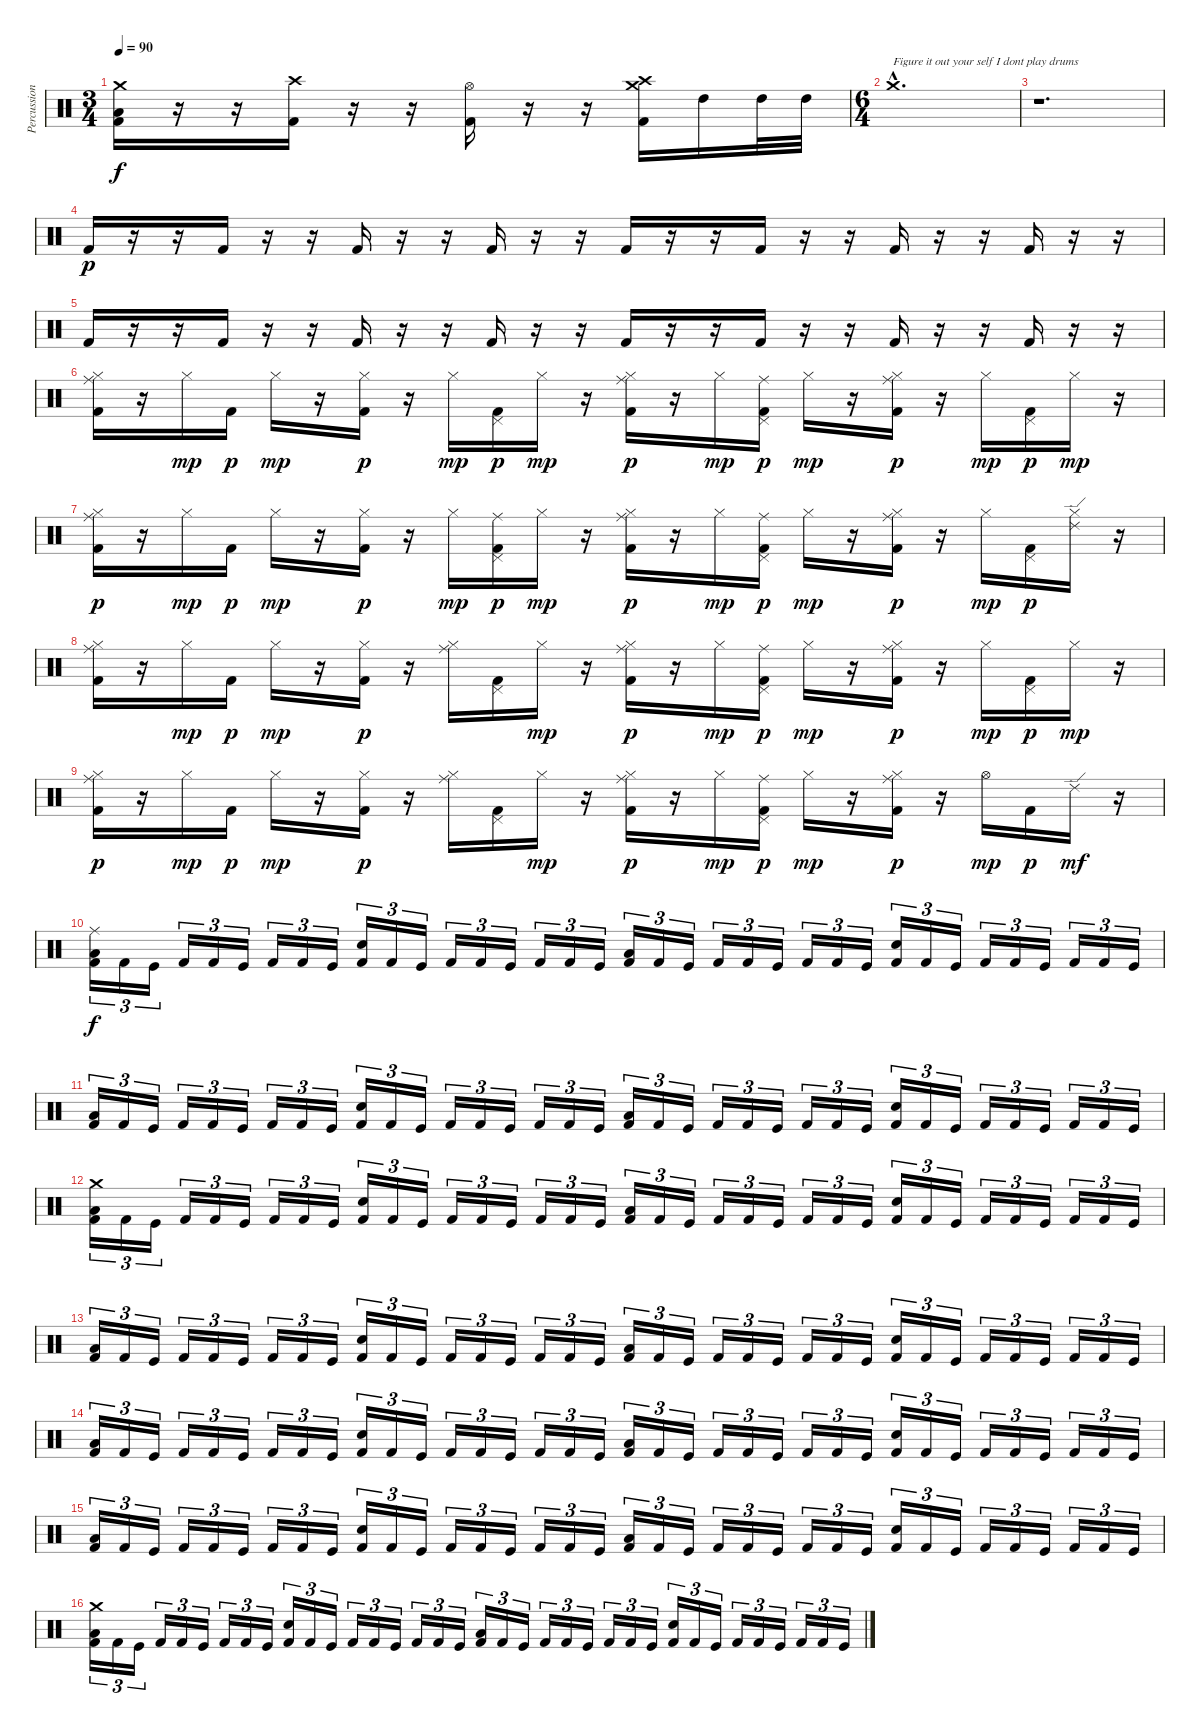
\track ("Percussion" "Percussion") {instrument percussion}
\staff {score}
\articulation defaults
\ts (3 4)
\tempo 90
\clef neutral
\ks c
("Crash medium (hit)" "Low Floor Tom (hit)" "Kick (hit) 2").16{dy f} r.16 r.16 ("Crash high (hit)" "Kick (hit) 2").16 r.16 r.16 ("Hi-Hat (open)" "Kick (hit) 2").16 r.16 r.16 ("Crash medium (hit)" "Crash high (hit)" "Kick (hit) 2").16 "High Tom (hit)".16 "High Tom (hit)".32 "High Tom (hit)".32 |
\ts (6 4)
"Crash medium (hit)"{hac}.1{d txt "Figure it out your self I dont play drums"} |
r.1{d} |
"Kick (hit) 2".16{dy p} r.16 r.16 "Kick (hit) 2".16 r.16 r.16 "Kick (hit) 2".16 r.16 r.16 "Kick (hit) 2".16 r.16 r.16 "Kick (hit) 2".16 r.16 r.16 "Kick (hit) 2".16 r.16 r.16 "Kick (hit) 2".16 r.16 r.16 "Kick (hit) 2".16 r.16 r.16 |
"Kick (hit) 2".16 r.16 r.16 "Kick (hit) 2".16 r.16 r.16 "Kick (hit) 2".16 r.16 r.16 "Kick (hit) 2".16 r.16 r.16 "Kick (hit) 2".16 r.16 r.16 "Kick (hit) 2".16 r.16 r.16 "Kick (hit) 2".16 r.16 r.16 "Kick (hit) 2".16 r.16 r.16 |
("Hi-Hat (closed)" "Ride (middle)" "Kick (hit) 2").16 r.16 "Hi-Hat (closed)".16{dy mp} "Kick (hit) 2".16{dy p} "Hi-Hat (closed)".16{dy mp} r.16 ("Hi-Hat (closed)" "Kick (hit) 2").16{dy p} r.16 "Hi-Hat (closed)".16{dy mp} ("Pedal Hi-Hat (hit)" "Kick (hit) 2").16{dy p} "Hi-Hat (closed)".16{dy mp} r.16 ("Hi-Hat (closed)" "Ride (middle)" "Kick (hit) 2").16{dy p} r.16 "Hi-Hat (closed)".16{dy mp} ("Pedal Hi-Hat (hit)" "Ride (middle)" "Kick (hit) 2").16{dy p} "Hi-Hat (closed)".16{dy mp} r.16 ("Hi-Hat (closed)" "Ride (middle)" "Kick (hit) 2").16{dy p} r.16 "Hi-Hat (closed)".16{dy mp} ("Pedal Hi-Hat (hit)" "Kick (hit) 2").16{dy p} "Hi-Hat (closed)".16{dy mp} r.16 |
("Hi-Hat (closed)" "Ride (middle)" "Kick (hit) 2").16{dy p} r.16 "Hi-Hat (closed)".16{dy mp} "Kick (hit) 2".16{dy p} "Hi-Hat (closed)".16{dy mp} r.16 ("Hi-Hat (closed)" "Kick (hit) 2").16{dy p} r.16 "Hi-Hat (closed)".16{dy mp} ("Pedal Hi-Hat (hit)" "Ride (middle)" "Kick (hit) 2").16{dy p} "Hi-Hat (closed)".16{dy mp} r.16 ("Hi-Hat (closed)" "Ride (middle)" "Kick (hit) 2").16{dy p} r.16 "Hi-Hat (closed)".16{dy mp} ("Pedal Hi-Hat (hit)" "Ride (middle)" "Kick (hit) 2").16{dy p} "Hi-Hat (closed)".16{dy mp} r.16 ("Hi-Hat (closed)" "Ride (middle)" "Kick (hit) 2").16{dy p} r.16 "Hi-Hat (closed)".16{dy mp} ("Pedal Hi-Hat (hit)" "Kick (hit) 2").16{dy p} ("Hi-Hat (closed)" "Ride (edge) 2").16 r.16 |
("Hi-Hat (closed)" "Ride (middle)" "Kick (hit) 2").16 r.16 "Hi-Hat (closed)".16{dy mp} "Kick (hit) 2".16{dy p} "Hi-Hat (closed)".16{dy mp} r.16 ("Hi-Hat (closed)" "Kick (hit) 2").16{dy p} r.16 ("Hi-Hat (closed)" "Ride (middle)").16 ("Pedal Hi-Hat (hit)" "Kick (hit) 2").16 "Hi-Hat (closed)".16{dy mp} r.16 ("Hi-Hat (closed)" "Ride (middle)" "Kick (hit) 2").16{dy p} r.16 "Hi-Hat (closed)".16{dy mp} ("Pedal Hi-Hat (hit)" "Ride (middle)" "Kick (hit) 2").16{dy p} "Hi-Hat (closed)".16{dy mp} r.16 ("Hi-Hat (closed)" "Ride (middle)" "Kick (hit) 2").16{dy p} r.16 "Hi-Hat (closed)".16{dy mp} ("Pedal Hi-Hat (hit)" "Kick (hit) 2").16{dy p} "Hi-Hat (closed)".16{dy mp} r.16 |
("Hi-Hat (closed)" "Ride (middle)" "Kick (hit) 2").16{dy p} r.16 "Hi-Hat (closed)".16{dy mp} "Kick (hit) 2".16{dy p} "Hi-Hat (closed)".16{dy mp} r.16 ("Hi-Hat (closed)" "Kick (hit) 2").16{dy p} r.16 ("Hi-Hat (closed)" "Ride (middle)").16 ("Pedal Hi-Hat (hit)" "Kick (hit) 2").16 "Hi-Hat (closed)".16{dy mp} r.16 ("Hi-Hat (closed)" "Ride (middle)" "Kick (hit) 2").16{dy p} r.16 "Hi-Hat (closed)".16{dy mp} ("Pedal Hi-Hat (hit)" "Ride (middle)" "Kick (hit) 2").16{dy p} "Hi-Hat (closed)".16{dy mp} r.16 ("Hi-Hat (closed)" "Ride (middle)" "Kick (hit) 2").16{dy p} r.16 "Hi-Hat (open)".16{dy mp} "Kick (hit) 2".16{dy p} "Ride (edge) 2".16{dy mf} r.16 |
("Ride (middle)" "Low Floor Tom (hit)" "Kick (hit) 2").16{tu (3 2) dy f} "Kick (hit) 2".16{tu (3 2)} "Kick (hit)".16{tu (3 2)} "Kick (hit) 2".16{tu (3 2)} "Kick (hit) 2".16{tu (3 2)} "Kick (hit)".16{tu (3 2)} "Kick (hit) 2".16{tu (3 2)} "Kick (hit) 2".16{tu (3 2)} "Kick (hit)".16{tu (3 2)} ("Electric Snare (hit)" "Kick (hit) 2").16{tu (3 2)} "Kick (hit) 2".16{tu (3 2)} "Kick (hit)".16{tu (3 2)} "Kick (hit) 2".16{tu (3 2)} "Kick (hit) 2".16{tu (3 2)} "Kick (hit)".16{tu (3 2)} "Kick (hit) 2".16{tu (3 2)} "Kick (hit) 2".16{tu (3 2)} "Kick (hit)".16{tu (3 2)} ("Low Floor Tom (hit)" "Kick (hit) 2").16{tu (3 2)} "Kick (hit) 2".16{tu (3 2)} "Kick (hit)".16{tu (3 2)} "Kick (hit) 2".16{tu (3 2)} "Kick (hit) 2".16{tu (3 2)} "Kick (hit)".16{tu (3 2)} "Kick (hit) 2".16{tu (3 2)} "Kick (hit) 2".16{tu (3 2)} "Kick (hit)".16{tu (3 2)} ("Electric Snare (hit)" "Kick (hit) 2").16{tu (3 2)} "Kick (hit) 2".16{tu (3 2)} "Kick (hit)".16{tu (3 2)} "Kick (hit) 2".16{tu (3 2)} "Kick (hit) 2".16{tu (3 2)} "Kick (hit)".16{tu (3 2)} "Kick (hit) 2".16{tu (3 2)} "Kick (hit) 2".16{tu (3 2)} "Kick (hit)".16{tu (3 2)} |
("Low Floor Tom (hit)" "Kick (hit) 2").16{tu (3 2)} "Kick (hit) 2".16{tu (3 2)} "Kick (hit)".16{tu (3 2)} "Kick (hit) 2".16{tu (3 2)} "Kick (hit) 2".16{tu (3 2)} "Kick (hit)".16{tu (3 2)} "Kick (hit) 2".16{tu (3 2)} "Kick (hit) 2".16{tu (3 2)} "Kick (hit)".16{tu (3 2)} ("Electric Snare (hit)" "Kick (hit) 2").16{tu (3 2)} "Kick (hit) 2".16{tu (3 2)} "Kick (hit)".16{tu (3 2)} "Kick (hit) 2".16{tu (3 2)} "Kick (hit) 2".16{tu (3 2)} "Kick (hit)".16{tu (3 2)} "Kick (hit) 2".16{tu (3 2)} "Kick (hit) 2".16{tu (3 2)} "Kick (hit)".16{tu (3 2)} ("Low Floor Tom (hit)" "Kick (hit) 2").16{tu (3 2)} "Kick (hit) 2".16{tu (3 2)} "Kick (hit)".16{tu (3 2)} "Kick (hit) 2".16{tu (3 2)} "Kick (hit) 2".16{tu (3 2)} "Kick (hit)".16{tu (3 2)} "Kick (hit) 2".16{tu (3 2)} "Kick (hit) 2".16{tu (3 2)} "Kick (hit)".16{tu (3 2)} ("Electric Snare (hit)" "Kick (hit) 2").16{tu (3 2)} "Kick (hit) 2".16{tu (3 2)} "Kick (hit)".16{tu (3 2)} "Kick (hit) 2".16{tu (3 2)} "Kick (hit) 2".16{tu (3 2)} "Kick (hit)".16{tu (3 2)} "Kick (hit) 2".16{tu (3 2)} "Kick (hit) 2".16{tu (3 2)} "Kick (hit)".16{tu (3 2)} |
("Crash medium (hit)" "Low Floor Tom (hit)" "Kick (hit) 2").16{tu (3 2)} "Kick (hit) 2".16{tu (3 2)} "Kick (hit)".16{tu (3 2)} "Kick (hit) 2".16{tu (3 2)} "Kick (hit) 2".16{tu (3 2)} "Kick (hit)".16{tu (3 2)} "Kick (hit) 2".16{tu (3 2)} "Kick (hit) 2".16{tu (3 2)} "Kick (hit)".16{tu (3 2)} ("Electric Snare (hit)" "Kick (hit) 2").16{tu (3 2)} "Kick (hit) 2".16{tu (3 2)} "Kick (hit)".16{tu (3 2)} "Kick (hit) 2".16{tu (3 2)} "Kick (hit) 2".16{tu (3 2)} "Kick (hit)".16{tu (3 2)} "Kick (hit) 2".16{tu (3 2)} "Kick (hit) 2".16{tu (3 2)} "Kick (hit)".16{tu (3 2)} ("Low Floor Tom (hit)" "Kick (hit) 2").16{tu (3 2)} "Kick (hit) 2".16{tu (3 2)} "Kick (hit)".16{tu (3 2)} "Kick (hit) 2".16{tu (3 2)} "Kick (hit) 2".16{tu (3 2)} "Kick (hit)".16{tu (3 2)} "Kick (hit) 2".16{tu (3 2)} "Kick (hit) 2".16{tu (3 2)} "Kick (hit)".16{tu (3 2)} ("Electric Snare (hit)" "Kick (hit) 2").16{tu (3 2)} "Kick (hit) 2".16{tu (3 2)} "Kick (hit)".16{tu (3 2)} "Kick (hit) 2".16{tu (3 2)} "Kick (hit) 2".16{tu (3 2)} "Kick (hit)".16{tu (3 2)} "Kick (hit) 2".16{tu (3 2)} "Kick (hit) 2".16{tu (3 2)} "Kick (hit)".16{tu (3 2)} |
("Low Floor Tom (hit)" "Kick (hit) 2").16{tu (3 2)} "Kick (hit) 2".16{tu (3 2)} "Kick (hit)".16{tu (3 2)} "Kick (hit) 2".16{tu (3 2)} "Kick (hit) 2".16{tu (3 2)} "Kick (hit)".16{tu (3 2)} "Kick (hit) 2".16{tu (3 2)} "Kick (hit) 2".16{tu (3 2)} "Kick (hit)".16{tu (3 2)} ("Electric Snare (hit)" "Kick (hit) 2").16{tu (3 2)} "Kick (hit) 2".16{tu (3 2)} "Kick (hit)".16{tu (3 2)} "Kick (hit) 2".16{tu (3 2)} "Kick (hit) 2".16{tu (3 2)} "Kick (hit)".16{tu (3 2)} "Kick (hit) 2".16{tu (3 2)} "Kick (hit) 2".16{tu (3 2)} "Kick (hit)".16{tu (3 2)} ("Low Floor Tom (hit)" "Kick (hit) 2").16{tu (3 2)} "Kick (hit) 2".16{tu (3 2)} "Kick (hit)".16{tu (3 2)} "Kick (hit) 2".16{tu (3 2)} "Kick (hit) 2".16{tu (3 2)} "Kick (hit)".16{tu (3 2)} "Kick (hit) 2".16{tu (3 2)} "Kick (hit) 2".16{tu (3 2)} "Kick (hit)".16{tu (3 2)} ("Electric Snare (hit)" "Kick (hit) 2").16{tu (3 2)} "Kick (hit) 2".16{tu (3 2)} "Kick (hit)".16{tu (3 2)} "Kick (hit) 2".16{tu (3 2)} "Kick (hit) 2".16{tu (3 2)} "Kick (hit)".16{tu (3 2)} "Kick (hit) 2".16{tu (3 2)} "Kick (hit) 2".16{tu (3 2)} "Kick (hit)".16{tu (3 2)} |
("Low Floor Tom (hit)" "Kick (hit) 2").16{tu (3 2)} "Kick (hit) 2".16{tu (3 2)} "Kick (hit)".16{tu (3 2)} "Kick (hit) 2".16{tu (3 2)} "Kick (hit) 2".16{tu (3 2)} "Kick (hit)".16{tu (3 2)} "Kick (hit) 2".16{tu (3 2)} "Kick (hit) 2".16{tu (3 2)} "Kick (hit)".16{tu (3 2)} ("Electric Snare (hit)" "Kick (hit) 2").16{tu (3 2)} "Kick (hit) 2".16{tu (3 2)} "Kick (hit)".16{tu (3 2)} "Kick (hit) 2".16{tu (3 2)} "Kick (hit) 2".16{tu (3 2)} "Kick (hit)".16{tu (3 2)} "Kick (hit) 2".16{tu (3 2)} "Kick (hit) 2".16{tu (3 2)} "Kick (hit)".16{tu (3 2)} ("Low Floor Tom (hit)" "Kick (hit) 2").16{tu (3 2)} "Kick (hit) 2".16{tu (3 2)} "Kick (hit)".16{tu (3 2)} "Kick (hit) 2".16{tu (3 2)} "Kick (hit) 2".16{tu (3 2)} "Kick (hit)".16{tu (3 2)} "Kick (hit) 2".16{tu (3 2)} "Kick (hit) 2".16{tu (3 2)} "Kick (hit)".16{tu (3 2)} ("Electric Snare (hit)" "Kick (hit) 2").16{tu (3 2)} "Kick (hit) 2".16{tu (3 2)} "Kick (hit)".16{tu (3 2)} "Kick (hit) 2".16{tu (3 2)} "Kick (hit) 2".16{tu (3 2)} "Kick (hit)".16{tu (3 2)} "Kick (hit) 2".16{tu (3 2)} "Kick (hit) 2".16{tu (3 2)} "Kick (hit)".16{tu (3 2)} |
("Low Floor Tom (hit)" "Kick (hit) 2").16{tu (3 2)} "Kick (hit) 2".16{tu (3 2)} "Kick (hit)".16{tu (3 2)} "Kick (hit) 2".16{tu (3 2)} "Kick (hit) 2".16{tu (3 2)} "Kick (hit)".16{tu (3 2)} "Kick (hit) 2".16{tu (3 2)} "Kick (hit) 2".16{tu (3 2)} "Kick (hit)".16{tu (3 2)} ("Electric Snare (hit)" "Kick (hit) 2").16{tu (3 2)} "Kick (hit) 2".16{tu (3 2)} "Kick (hit)".16{tu (3 2)} "Kick (hit) 2".16{tu (3 2)} "Kick (hit) 2".16{tu (3 2)} "Kick (hit)".16{tu (3 2)} "Kick (hit) 2".16{tu (3 2)} "Kick (hit) 2".16{tu (3 2)} "Kick (hit)".16{tu (3 2)} ("Low Floor Tom (hit)" "Kick (hit) 2").16{tu (3 2)} "Kick (hit) 2".16{tu (3 2)} "Kick (hit)".16{tu (3 2)} "Kick (hit) 2".16{tu (3 2)} "Kick (hit) 2".16{tu (3 2)} "Kick (hit)".16{tu (3 2)} "Kick (hit) 2".16{tu (3 2)} "Kick (hit) 2".16{tu (3 2)} "Kick (hit)".16{tu (3 2)} ("Electric Snare (hit)" "Kick (hit) 2").16{tu (3 2)} "Kick (hit) 2".16{tu (3 2)} "Kick (hit)".16{tu (3 2)} "Kick (hit) 2".16{tu (3 2)} "Kick (hit) 2".16{tu (3 2)} "Kick (hit)".16{tu (3 2)} "Kick (hit) 2".16{tu (3 2)} "Kick (hit) 2".16{tu (3 2)} "Kick (hit)".16{tu (3 2)} |
("Crash medium (hit)" "Low Floor Tom (hit)" "Kick (hit) 2").16{tu (3 2)} "Kick (hit) 2".16{tu (3 2)} "Kick (hit)".16{tu (3 2)} "Kick (hit) 2".16{tu (3 2)} "Kick (hit) 2".16{tu (3 2)} "Kick (hit)".16{tu (3 2)} "Kick (hit) 2".16{tu (3 2)} "Kick (hit) 2".16{tu (3 2)} "Kick (hit)".16{tu (3 2)} ("Electric Snare (hit)" "Kick (hit) 2").16{tu (3 2)} "Kick (hit) 2".16{tu (3 2)} "Kick (hit)".16{tu (3 2)} "Kick (hit) 2".16{tu (3 2)} "Kick (hit) 2".16{tu (3 2)} "Kick (hit)".16{tu (3 2)} "Kick (hit) 2".16{tu (3 2)} "Kick (hit) 2".16{tu (3 2)} "Kick (hit)".16{tu (3 2)} ("Low Floor Tom (hit)" "Kick (hit) 2").16{tu (3 2)} "Kick (hit) 2".16{tu (3 2)} "Kick (hit)".16{tu (3 2)} "Kick (hit) 2".16{tu (3 2)} "Kick (hit) 2".16{tu (3 2)} "Kick (hit)".16{tu (3 2)} "Kick (hit) 2".16{tu (3 2)} "Kick (hit) 2".16{tu (3 2)} "Kick (hit)".16{tu (3 2)} ("Electric Snare (hit)" "Kick (hit) 2").16{tu (3 2)} "Kick (hit) 2".16{tu (3 2)} "Kick (hit)".16{tu (3 2)} "Kick (hit) 2".16{tu (3 2)} "Kick (hit) 2".16{tu (3 2)} "Kick (hit)".16{tu (3 2)} "Kick (hit) 2".16{tu (3 2)} "Kick (hit) 2".16{tu (3 2)} "Kick (hit)".16{tu (3 2)}
